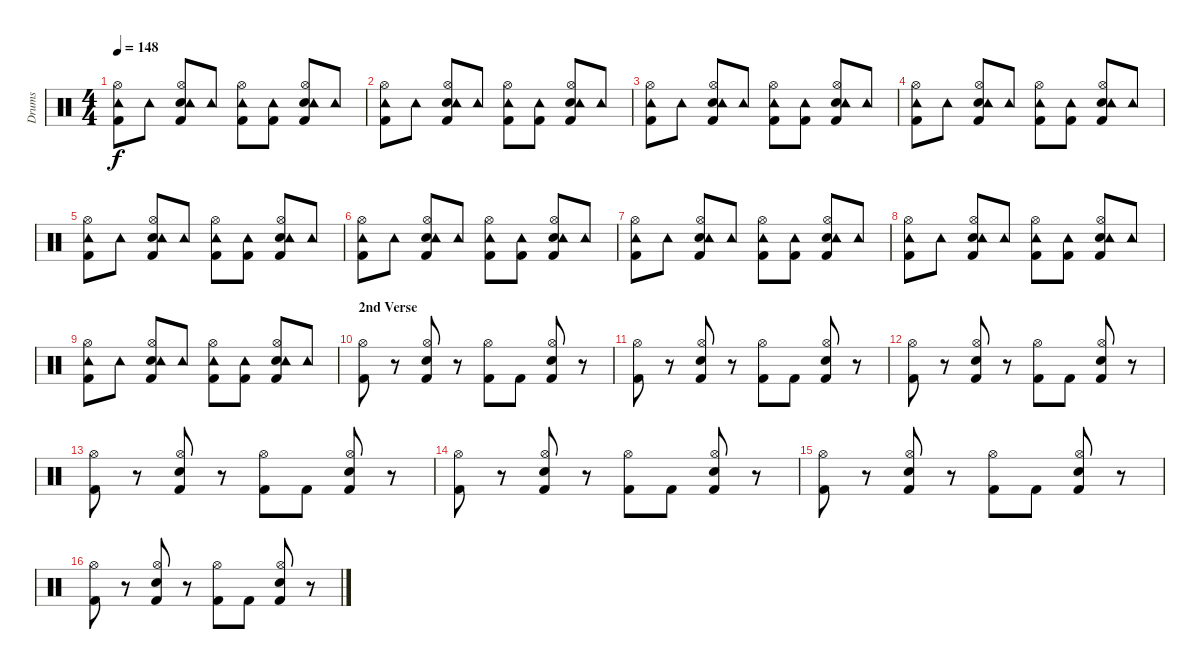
\track ("Drums" "Drums") {instrument percussion}
\staff {score}
\articulation defaults
\ts (4 4)
\tempo 148
\clef neutral
\ks c
("Kick (hit) 2" "Tambourine (hit)" "Hi-Hat (open)").8{dy f} "Tambourine (hit)".8 ("Kick (hit) 2" "Electric Snare (hit)" "Tambourine (hit)" "Hi-Hat (open)").8 "Tambourine (hit)".8 ("Kick (hit) 2" "Tambourine (hit)" "Hi-Hat (open)").8 ("Kick (hit) 2" "Tambourine (hit)").8 ("Kick (hit) 2" "Electric Snare (hit)" "Tambourine (hit)" "Hi-Hat (open)").8 "Tambourine (hit)".8 |
("Kick (hit) 2" "Tambourine (hit)" "Hi-Hat (open)").8 "Tambourine (hit)".8 ("Kick (hit) 2" "Electric Snare (hit)" "Tambourine (hit)" "Hi-Hat (open)").8 "Tambourine (hit)".8 ("Kick (hit) 2" "Tambourine (hit)" "Hi-Hat (open)").8 ("Kick (hit) 2" "Tambourine (hit)").8 ("Kick (hit) 2" "Electric Snare (hit)" "Tambourine (hit)" "Hi-Hat (open)").8 "Tambourine (hit)".8 |
("Kick (hit) 2" "Tambourine (hit)" "Hi-Hat (open)").8 "Tambourine (hit)".8 ("Kick (hit) 2" "Electric Snare (hit)" "Tambourine (hit)" "Hi-Hat (open)").8 "Tambourine (hit)".8 ("Kick (hit) 2" "Tambourine (hit)" "Hi-Hat (open)").8 ("Kick (hit) 2" "Tambourine (hit)").8 ("Kick (hit) 2" "Electric Snare (hit)" "Tambourine (hit)" "Hi-Hat (open)").8 "Tambourine (hit)".8 |
("Kick (hit) 2" "Tambourine (hit)" "Hi-Hat (open)").8 "Tambourine (hit)".8 ("Kick (hit) 2" "Electric Snare (hit)" "Tambourine (hit)" "Hi-Hat (open)").8 "Tambourine (hit)".8 ("Kick (hit) 2" "Tambourine (hit)" "Hi-Hat (open)").8 ("Kick (hit) 2" "Tambourine (hit)").8 ("Kick (hit) 2" "Electric Snare (hit)" "Tambourine (hit)" "Hi-Hat (open)").8 "Tambourine (hit)".8 |
("Kick (hit) 2" "Tambourine (hit)" "Hi-Hat (open)").8 "Tambourine (hit)".8 ("Kick (hit) 2" "Electric Snare (hit)" "Tambourine (hit)" "Hi-Hat (open)").8 "Tambourine (hit)".8 ("Kick (hit) 2" "Tambourine (hit)" "Hi-Hat (open)").8 ("Kick (hit) 2" "Tambourine (hit)").8 ("Kick (hit) 2" "Electric Snare (hit)" "Tambourine (hit)" "Hi-Hat (open)").8 "Tambourine (hit)".8 |
("Kick (hit) 2" "Tambourine (hit)" "Hi-Hat (open)").8 "Tambourine (hit)".8 ("Kick (hit) 2" "Electric Snare (hit)" "Tambourine (hit)" "Hi-Hat (open)").8 "Tambourine (hit)".8 ("Kick (hit) 2" "Tambourine (hit)" "Hi-Hat (open)").8 ("Kick (hit) 2" "Tambourine (hit)").8 ("Kick (hit) 2" "Electric Snare (hit)" "Tambourine (hit)" "Hi-Hat (open)").8 "Tambourine (hit)".8 |
("Kick (hit) 2" "Tambourine (hit)" "Hi-Hat (open)").8 "Tambourine (hit)".8 ("Kick (hit) 2" "Electric Snare (hit)" "Tambourine (hit)" "Hi-Hat (open)").8 "Tambourine (hit)".8 ("Kick (hit) 2" "Tambourine (hit)" "Hi-Hat (open)").8 ("Kick (hit) 2" "Tambourine (hit)").8 ("Kick (hit) 2" "Electric Snare (hit)" "Tambourine (hit)" "Hi-Hat (open)").8 "Tambourine (hit)".8 |
("Kick (hit) 2" "Tambourine (hit)" "Hi-Hat (open)").8 "Tambourine (hit)".8 ("Kick (hit) 2" "Electric Snare (hit)" "Tambourine (hit)" "Hi-Hat (open)").8 "Tambourine (hit)".8 ("Kick (hit) 2" "Tambourine (hit)" "Hi-Hat (open)").8 ("Kick (hit) 2" "Tambourine (hit)").8 ("Kick (hit) 2" "Electric Snare (hit)" "Tambourine (hit)" "Hi-Hat (open)").8 "Tambourine (hit)".8 |
("Kick (hit) 2" "Tambourine (hit)" "Hi-Hat (open)").8 "Tambourine (hit)".8 ("Kick (hit) 2" "Electric Snare (hit)" "Tambourine (hit)" "Hi-Hat (open)").8 "Tambourine (hit)".8 ("Kick (hit) 2" "Tambourine (hit)" "Hi-Hat (open)").8 ("Kick (hit) 2" "Tambourine (hit)").8 ("Kick (hit) 2" "Electric Snare (hit)" "Tambourine (hit)" "Hi-Hat (open)").8 "Tambourine (hit)".8 |
\section ("" "2nd Verse")
("Kick (hit) 2" "Hi-Hat (open)").8 r.8 ("Kick (hit) 2" "Electric Snare (hit)" "Hi-Hat (open)").8 r.8 ("Kick (hit) 2" "Hi-Hat (open)").8 "Kick (hit) 2".8 ("Kick (hit) 2" "Electric Snare (hit)" "Hi-Hat (open)").8 r.8 |
("Kick (hit) 2" "Hi-Hat (open)").8 r.8 ("Kick (hit) 2" "Electric Snare (hit)" "Hi-Hat (open)").8 r.8 ("Kick (hit) 2" "Hi-Hat (open)").8 "Kick (hit) 2".8 ("Kick (hit) 2" "Electric Snare (hit)" "Hi-Hat (open)").8 r.8 |
("Kick (hit) 2" "Hi-Hat (open)").8 r.8 ("Kick (hit) 2" "Electric Snare (hit)" "Hi-Hat (open)").8 r.8 ("Kick (hit) 2" "Hi-Hat (open)").8 "Kick (hit) 2".8 ("Kick (hit) 2" "Electric Snare (hit)" "Hi-Hat (open)").8 r.8 |
("Kick (hit) 2" "Hi-Hat (open)").8 r.8 ("Kick (hit) 2" "Electric Snare (hit)" "Hi-Hat (open)").8 r.8 ("Kick (hit) 2" "Hi-Hat (open)").8 "Kick (hit) 2".8 ("Kick (hit) 2" "Electric Snare (hit)" "Hi-Hat (open)").8 r.8 |
("Kick (hit) 2" "Hi-Hat (open)").8 r.8 ("Kick (hit) 2" "Electric Snare (hit)" "Hi-Hat (open)").8 r.8 ("Kick (hit) 2" "Hi-Hat (open)").8 "Kick (hit) 2".8 ("Kick (hit) 2" "Electric Snare (hit)" "Hi-Hat (open)").8 r.8 |
("Kick (hit) 2" "Hi-Hat (open)").8 r.8 ("Kick (hit) 2" "Electric Snare (hit)" "Hi-Hat (open)").8 r.8 ("Kick (hit) 2" "Hi-Hat (open)").8 "Kick (hit) 2".8 ("Kick (hit) 2" "Electric Snare (hit)" "Hi-Hat (open)").8 r.8 |
("Kick (hit) 2" "Hi-Hat (open)").8 r.8 ("Kick (hit) 2" "Electric Snare (hit)" "Hi-Hat (open)").8 r.8 ("Kick (hit) 2" "Hi-Hat (open)").8 "Kick (hit) 2".8 ("Kick (hit) 2" "Electric Snare (hit)" "Hi-Hat (open)").8 r.8
